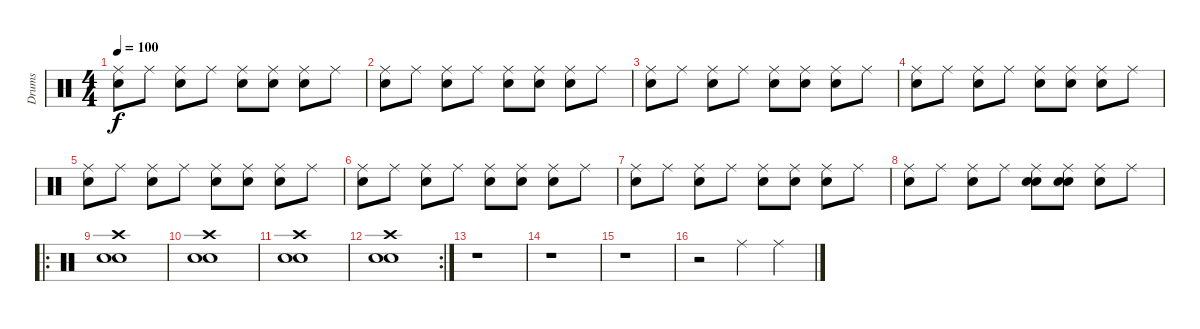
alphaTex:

\track ("Drums" "Drums") {instrument percussion}
\staff {score}
\articulation defaults
\ts (4 4)
\tempo 100
\clef neutral
\ks c
("Ride (middle)" "Snare (hit) 2").8{dy f} "Ride (middle)".8 ("Ride (middle)" "Electric Snare (hit)").8 "Ride (middle)".8 ("Ride (middle)" "Snare (hit) 2").8 ("Ride (middle)" "Snare (hit) 2").8 ("Ride (middle)" "Electric Snare (hit)").8 "Ride (middle)".8 |
("Ride (middle)" "Snare (hit) 2").8 "Ride (middle)".8 ("Ride (middle)" "Electric Snare (hit)").8 "Ride (middle)".8 ("Ride (middle)" "Snare (hit) 2").8 ("Ride (middle)" "Snare (hit) 2").8 ("Ride (middle)" "Electric Snare (hit)").8 "Ride (middle)".8 |
("Ride (middle)" "Snare (hit) 2").8 "Ride (middle)".8 ("Ride (middle)" "Electric Snare (hit)").8 "Ride (middle)".8 ("Ride (middle)" "Snare (hit) 2").8 ("Ride (middle)" "Snare (hit) 2").8 ("Ride (middle)" "Electric Snare (hit)").8 "Ride (middle)".8 |
("Ride (middle)" "Snare (hit) 2").8 "Ride (middle)".8 ("Ride (middle)" "Electric Snare (hit)").8 "Ride (middle)".8 ("Ride (middle)" "Snare (hit) 2").8 ("Ride (middle)" "Snare (hit) 2").8 ("Ride (middle)" "Electric Snare (hit)").8 "Ride (middle)".8 |
("Ride (middle)" "Snare (hit) 2").8 "Ride (middle)".8 ("Ride (middle)" "Electric Snare (hit)").8 "Ride (middle)".8 ("Ride (middle)" "Snare (hit) 2").8 ("Ride (middle)" "Snare (hit) 2").8 ("Ride (middle)" "Electric Snare (hit)").8 "Ride (middle)".8 |
("Ride (middle)" "Snare (hit) 2").8 "Ride (middle)".8 ("Ride (middle)" "Electric Snare (hit)").8 "Ride (middle)".8 ("Ride (middle)" "Snare (hit) 2").8 ("Ride (middle)" "Snare (hit) 2").8 ("Ride (middle)" "Electric Snare (hit)").8 "Ride (middle)".8 |
("Ride (middle)" "Snare (hit) 2").8 "Ride (middle)".8 ("Ride (middle)" "Electric Snare (hit)").8 "Ride (middle)".8 ("Ride (middle)" "Snare (hit) 2").8 ("Ride (middle)" "Snare (hit) 2").8 ("Ride (middle)" "Electric Snare (hit)").8 "Ride (middle)".8 |
("Ride (middle)" "Snare (hit) 2").8 "Ride (middle)".8 ("Ride (middle)" "Electric Snare (hit)").8 "Ride (middle)".8 ("Ride (middle)" "Snare (hit) 2" "Electric Snare (hit)").8 ("Ride (middle)" "Snare (hit) 2" "Electric Snare (hit)").8 ("Ride (middle)" "Electric Snare (hit)").8 "Ride (middle)".8 |
\ro
("Crash high (hit)" "Electric Snare (hit)" "Snare (hit) 2").1 |
("Crash high (hit)" "Electric Snare (hit)" "Snare (hit) 2").1 |
("Crash high (hit)" "Electric Snare (hit)" "Snare (hit) 2").1 |
\rc 2
("Crash high (hit)" "Electric Snare (hit)" "Snare (hit) 2").1 |
r.1 |
r.1 |
r.1 |
r.2 "Ride (middle)".4 "Ride (middle)".4
